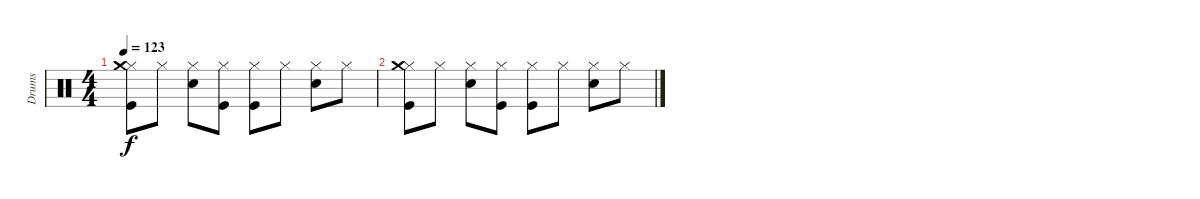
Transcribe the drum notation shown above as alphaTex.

\track ("Drums" "Drums") {instrument percussion}
\staff {score}
\articulation defaults
\ts (4 4)
\tempo 123
\clef neutral
\ks c
("Hi-Hat (closed)" "Crash medium (hit)" "Kick (hit)").8{dy f} "Hi-Hat (closed)".8 ("Hi-Hat (closed)" "Snare (hit) 2").8 ("Hi-Hat (closed)" "Kick (hit)").8 ("Hi-Hat (closed)" "Kick (hit)").8 "Hi-Hat (closed)".8 ("Hi-Hat (closed)" "Snare (hit) 2").8 "Hi-Hat (closed)".8 |
("Hi-Hat (closed)" "Crash medium (hit)" "Kick (hit)").8 "Hi-Hat (closed)".8 ("Hi-Hat (closed)" "Snare (hit) 2").8 ("Hi-Hat (closed)" "Kick (hit)").8 ("Hi-Hat (closed)" "Kick (hit)").8 "Hi-Hat (closed)".8 ("Hi-Hat (closed)" "Snare (hit) 2").8 "Hi-Hat (closed)".8
